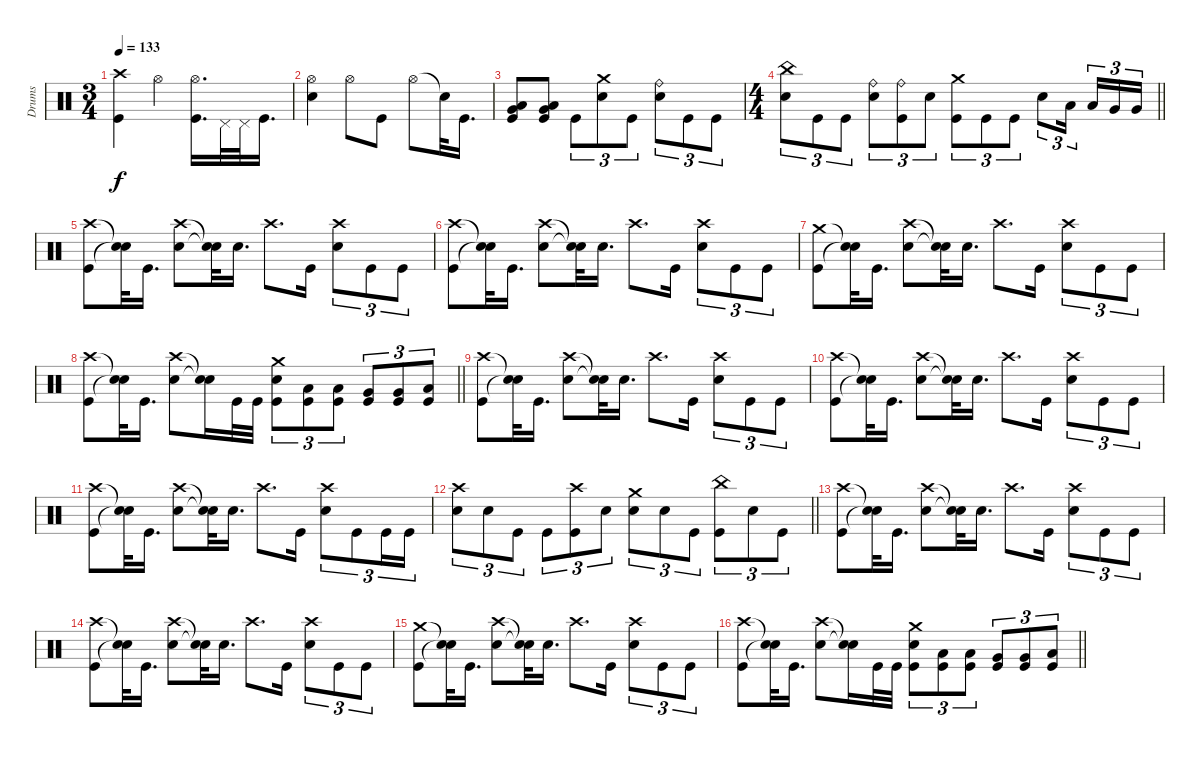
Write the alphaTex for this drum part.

\track ("Drums" "Drums") {instrument percussion}
\staff
\articulation defaults
\ts (3 4)
\tempo 133
\clef neutral
\ks c
("Crash high (hit)" "Kick (hit)").4{dy f} "Hi-Hat (open)".4 ("Hi-Hat (open)" "Kick (hit)").16{d} "Pedal Hi-Hat (hit)".32 "Pedal Hi-Hat (hit)".32 "Kick (hit)".16{d} |
("Hi-Hat (open)" "Electric Snare (hit)").4 "Hi-Hat (open)".8 "Kick (hit)".8 "Hi-Hat (open)".8 "Snare (hit)"{t}.32 "Kick (hit)".16{d} |
("Very Low Tom (hit)" "Low Floor Tom (hit)" "Kick (hit)").8 ("Very Low Tom (hit)" "Low Floor Tom (hit)" "Kick (hit)").8 "Kick (hit)".8{tu (3 2)} ("Crash medium (hit)" "Electric Snare (hit)").8{tu (3 2)} "Kick (hit)".8{tu (3 2)} ("Ride (bell)" "Electric Snare (hit)").8{tu (3 2)} "Kick (hit)".8{tu (3 2)} "Kick (hit)".8{tu (3 2)} |
\ts (4 4)
\barLineRight lightlight
("China (hit)" "Electric Snare (hit)").8{tu (3 2)} "Kick (hit)".8{tu (3 2)} "Kick (hit)".8{tu (3 2)} ("Ride (bell)" "Electric Snare (hit)").8{tu (3 2)} ("Ride (bell)" "Kick (hit)").8{tu (3 2)} "Electric Snare (hit)".8{tu (3 2)} ("Crash medium (hit)" "Kick (hit)").8{tu (3 2)} "Kick (hit)".8{tu (3 2)} "Kick (hit)".8{tu (3 2)} "Electric Snare (hit)".8{tu (3 2)} "Low Tom (hit)".16{tu (3 2) beam splitsecondary} "Low Tom (hit)".16{tu (3 2)} "Very Low Tom (hit)".16{tu (3 2)} "Very Low Tom (hit)".16{tu (3 2)} |
\section ("" "")
("Crash high (hit)" "Kick (hit)").8 ("Snare (hit)"{t} "Snare (hit)"{t}).32 "Kick (hit)".16{d} ("Crash high (hit)" "Electric Snare (hit)").8 ("Snare (hit)"{t} "Snare (hit)"{t}).32 "Electric Snare (hit)".16{d} "Crash high (hit)".8{d} "Kick (hit)".16 ("Crash high (hit)" "Electric Snare (hit)").8{tu (3 2)} "Kick (hit)".8{tu (3 2)} "Kick (hit)".8{tu (3 2)} |
("Crash high (hit)" "Kick (hit)").8 ("Snare (hit)"{t} "Snare (hit)"{t}).32 "Kick (hit)".16{d} ("Crash high (hit)" "Electric Snare (hit)").8 ("Snare (hit)"{t} "Snare (hit)"{t}).32 "Electric Snare (hit)".16{d} "Crash high (hit)".8{d} "Kick (hit)".16 ("Crash high (hit)" "Electric Snare (hit)").8{tu (3 2)} "Kick (hit)".8{tu (3 2)} "Kick (hit)".8{tu (3 2)} |
("Crash medium (hit)" "Kick (hit)").8 ("Snare (hit)"{t} "Snare (hit)"{t}).32 "Kick (hit)".16{d} ("Crash high (hit)" "Electric Snare (hit)").8 ("Snare (hit)"{t} "Snare (hit)"{t}).32 "Electric Snare (hit)".16{d} "Crash high (hit)".8{d} "Kick (hit)".16 ("Crash high (hit)" "Electric Snare (hit)").8{tu (3 2)} "Kick (hit)".8{tu (3 2)} "Kick (hit)".8{tu (3 2)} |
\barLineRight lightlight
("Crash high (hit)" "Kick (hit)").8 ("Snare (hit)"{t} "Snare (hit)"{t}).32 "Kick (hit)".16{d} ("Crash high (hit)" "Electric Snare (hit)").8 ("Snare (hit)"{t} "Snare (hit)"{t}).16 "Kick (hit)".32 "Kick (hit)".32 ("Crash medium (hit)" "Electric Snare (hit)" "Kick (hit)").8{tu (3 2)} ("Low Tom (hit)" "Kick (hit)").8{tu (3 2)} ("Low Tom (hit)" "Kick (hit)").8{tu (3 2)} ("Very Low Tom (hit)" "Kick (hit)").8{tu (3 2)} ("Very Low Tom (hit)" "Kick (hit)").8{tu (3 2)} ("Low Floor Tom (hit)" "Kick (hit)").8{tu (3 2)} |
("Crash high (hit)" "Kick (hit)").8 ("Snare (hit)"{t} "Snare (hit)"{t}).32 "Kick (hit)".16{d} ("Crash high (hit)" "Electric Snare (hit)").8 ("Snare (hit)"{t} "Snare (hit)"{t}).32 "Electric Snare (hit)".16{d} "Crash high (hit)".8{d} "Kick (hit)".16 ("Crash high (hit)" "Electric Snare (hit)").8{tu (3 2)} "Kick (hit)".8{tu (3 2)} "Kick (hit)".8{tu (3 2)} |
("Crash high (hit)" "Kick (hit)").8 ("Snare (hit)"{t} "Snare (hit)"{t}).32 "Kick (hit)".16{d} ("Crash high (hit)" "Electric Snare (hit)").8 ("Snare (hit)"{t} "Snare (hit)"{t}).32 "Electric Snare (hit)".16{d} "Crash high (hit)".8{d} "Kick (hit)".16 ("Crash high (hit)" "Electric Snare (hit)").8{tu (3 2)} "Kick (hit)".8{tu (3 2)} "Kick (hit)".8{tu (3 2)} |
("Crash high (hit)" "Kick (hit)").8 ("Snare (hit)"{t} "Snare (hit)"{t}).32 "Kick (hit)".16{d} ("Crash high (hit)" "Electric Snare (hit)").8 ("Snare (hit)"{t} "Snare (hit)"{t}).32 "Electric Snare (hit)".16{d} "Crash high (hit)".8{d} "Kick (hit)".16 ("Crash high (hit)" "Electric Snare (hit)").8{tu (3 2)} "Kick (hit)".8{tu (3 2)} "Kick (hit)".16{tu (3 2)} "Kick (hit)".16{tu (3 2)} |
\barLineRight lightlight
("Crash high (hit)" "Electric Snare (hit)").8{tu (3 2)} "Electric Snare (hit)".8{tu (3 2)} "Kick (hit)".8{tu (3 2)} "Kick (hit)".8{tu (3 2)} ("Crash high (hit)" "Kick (hit)").8{tu (3 2)} "Electric Snare (hit)".8{tu (3 2)} ("Crash medium (hit)" "Electric Snare (hit)").8{tu (3 2)} "Electric Snare (hit)".8{tu (3 2)} "Kick (hit)".8{tu (3 2)} ("China (hit)" "Kick (hit)").8{tu (3 2)} "Electric Snare (hit)".8{tu (3 2)} "Kick (hit)".8{tu (3 2)} |
("Crash high (hit)" "Kick (hit)").8 ("Snare (hit)"{t} "Snare (hit)"{t}).32 "Kick (hit)".16{d} ("Crash high (hit)" "Electric Snare (hit)").8 ("Snare (hit)"{t} "Snare (hit)"{t}).32 "Electric Snare (hit)".16{d} "Crash high (hit)".8{d} "Kick (hit)".16 ("Crash high (hit)" "Electric Snare (hit)").8{tu (3 2)} "Kick (hit)".8{tu (3 2)} "Kick (hit)".8{tu (3 2)} |
("Crash high (hit)" "Kick (hit)").8 ("Snare (hit)"{t} "Snare (hit)"{t}).32 "Kick (hit)".16{d} ("Crash high (hit)" "Electric Snare (hit)").8 ("Snare (hit)"{t} "Snare (hit)"{t}).32 "Electric Snare (hit)".16{d} "Crash high (hit)".8{d} "Kick (hit)".16 ("Crash high (hit)" "Electric Snare (hit)").8{tu (3 2)} "Kick (hit)".8{tu (3 2)} "Kick (hit)".8{tu (3 2)} |
("Crash medium (hit)" "Kick (hit)").8 ("Snare (hit)"{t} "Snare (hit)"{t}).32 "Kick (hit)".16{d} ("Crash high (hit)" "Electric Snare (hit)").8 ("Snare (hit)"{t} "Snare (hit)"{t}).32 "Electric Snare (hit)".16{d} "Crash high (hit)".8{d} "Kick (hit)".16 ("Crash high (hit)" "Electric Snare (hit)").8{tu (3 2)} "Kick (hit)".8{tu (3 2)} "Kick (hit)".8{tu (3 2)} |
\barLineRight lightlight
("Crash high (hit)" "Kick (hit)").8 ("Snare (hit)"{t} "Snare (hit)"{t}).32 "Kick (hit)".16{d} ("Crash high (hit)" "Electric Snare (hit)").8 ("Snare (hit)"{t} "Snare (hit)"{t}).16 "Kick (hit)".32 "Kick (hit)".32 ("Crash medium (hit)" "Electric Snare (hit)" "Kick (hit)").8{tu (3 2)} ("Low Tom (hit)" "Kick (hit)").8{tu (3 2)} ("Low Tom (hit)" "Kick (hit)").8{tu (3 2)} ("Very Low Tom (hit)" "Kick (hit)").8{tu (3 2)} ("Very Low Tom (hit)" "Kick (hit)").8{tu (3 2)} ("Low Floor Tom (hit)" "Kick (hit)").8{tu (3 2)}
